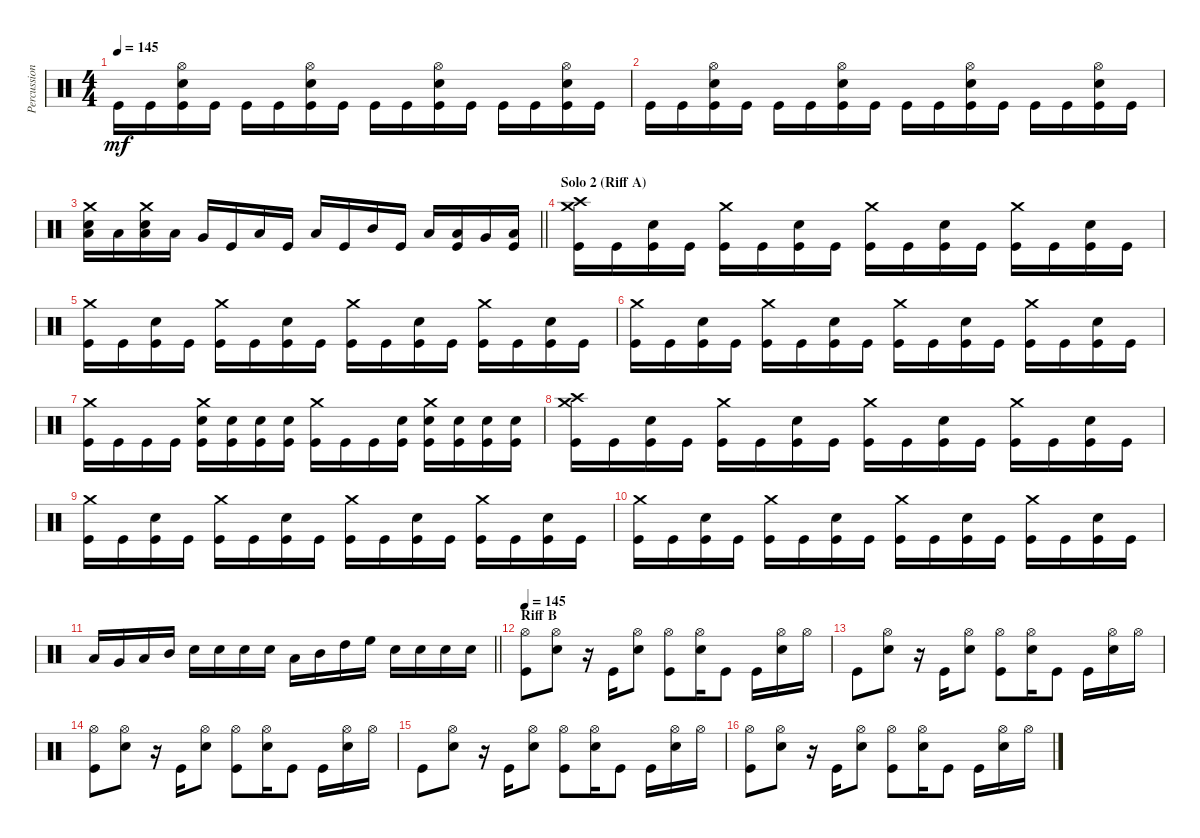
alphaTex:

\track ("Percussion" "Percussion") {instrument percussion}
\staff {score}
\articulation defaults
\ts (4 4)
\tempo 145
\clef neutral
\ks c "Kick (hit)".16{dy mf} "Kick (hit)".16
("Snare (hit) 2" "Hi-Hat (open)" "Kick (hit)").16 "Kick (hit)".16 "Kick (hit)".16 "Kick (hit)".16 ("Snare (hit) 2" "Hi-Hat (open)" "Kick (hit)").16 "Kick (hit)".16 "Kick (hit)".16 "Kick (hit)".16 ("Snare (hit) 2" "Hi-Hat (open)" "Kick (hit)").16 "Kick (hit)".16 "Kick (hit)".16 "Kick (hit)".16 ("Snare (hit) 2" "Hi-Hat (open)" "Kick (hit)").16 "Kick (hit)".16 |
"Kick (hit)".16 "Kick (hit)".16 ("Snare (hit) 2" "Hi-Hat (open)" "Kick (hit)").16 "Kick (hit)".16 "Kick (hit)".16 "Kick (hit)".16 ("Snare (hit) 2" "Hi-Hat (open)" "Kick (hit)").16 "Kick (hit)".16 "Kick (hit)".16 "Kick (hit)".16 ("Snare (hit) 2" "Hi-Hat (open)" "Kick (hit)").16 "Kick (hit)".16 "Kick (hit)".16 "Kick (hit)".16 ("Snare (hit) 2" "Hi-Hat (open)" "Kick (hit)").16 "Kick (hit)".16 |
\barLineRight lightlight
("Low Floor Tom (hit)" "Snare (hit) 2" "Crash medium (hit)").16 "Low Floor Tom (hit)".16 ("Low Floor Tom (hit)" "Snare (hit) 2" "Crash medium (hit)").16 "Low Floor Tom (hit)".16 "Very Low Tom (hit)".16 "Kick (hit)".16 "Low Tom (hit)".16 "Kick (hit)".16 "Low Floor Tom (hit)".16 "Kick (hit)".16 "Mid Tom (hit)".16 "Kick (hit)".16 "Low Tom (hit)".16 ("Low Floor Tom (hit)" "Kick (hit)").16 "Very Low Tom (hit)".16 ("Low Floor Tom (hit)" "Kick (hit)").16 |
\section ("" "Solo 2 (Riff A)")
("Crash medium (hit)" "Crash high (hit)" "Kick (hit)").16 "Kick (hit)".16 ("Snare (hit) 2" "Kick (hit)").16 "Kick (hit)".16 ("Crash medium (hit)" "Kick (hit)").16 "Kick (hit)".16 ("Snare (hit) 2" "Kick (hit)").16 "Kick (hit)".16 ("Crash medium (hit)" "Kick (hit)").16 "Kick (hit)".16 ("Snare (hit) 2" "Kick (hit)").16 "Kick (hit)".16 ("Crash medium (hit)" "Kick (hit)").16 "Kick (hit)".16 ("Snare (hit) 2" "Kick (hit)").16 "Kick (hit)".16 |
("Crash medium (hit)" "Kick (hit)").16 "Kick (hit)".16 ("Snare (hit) 2" "Kick (hit)").16 "Kick (hit)".16 ("Crash medium (hit)" "Kick (hit)").16 "Kick (hit)".16 ("Snare (hit) 2" "Kick (hit)").16 "Kick (hit)".16 ("Crash medium (hit)" "Kick (hit)").16 "Kick (hit)".16 ("Snare (hit) 2" "Kick (hit)").16 "Kick (hit)".16 ("Crash medium (hit)" "Kick (hit)").16 "Kick (hit)".16 ("Snare (hit) 2" "Kick (hit)").16 "Kick (hit)".16 |
("Crash medium (hit)" "Kick (hit)").16 "Kick (hit)".16 ("Snare (hit) 2" "Kick (hit)").16 "Kick (hit)".16 ("Crash medium (hit)" "Kick (hit)").16 "Kick (hit)".16 ("Snare (hit) 2" "Kick (hit)").16 "Kick (hit)".16 ("Crash medium (hit)" "Kick (hit)").16 "Kick (hit)".16 ("Snare (hit) 2" "Kick (hit)").16 "Kick (hit)".16 ("Crash medium (hit)" "Kick (hit)").16 "Kick (hit)".16 ("Snare (hit) 2" "Kick (hit)").16 "Kick (hit)".16 |
("Crash medium (hit)" "Kick (hit)").16 "Kick (hit)".16 "Kick (hit)".16 "Kick (hit)".16 ("Crash medium (hit)" "Snare (hit) 2" "Kick (hit)").16 ("Snare (hit) 2" "Kick (hit)").16 ("Snare (hit) 2" "Kick (hit)").16 ("Snare (hit) 2" "Kick (hit)").16 ("Crash medium (hit)" "Kick (hit)").16 "Kick (hit)".16 "Kick (hit)".16 ("Snare (hit) 2" "Kick (hit)").16 ("Crash medium (hit)" "Snare (hit) 2" "Kick (hit)").16 ("Snare (hit) 2" "Kick (hit)").16 ("Snare (hit) 2" "Kick (hit)").16 ("Snare (hit) 2" "Kick (hit)").16 |
("Crash medium (hit)" "Crash high (hit)" "Kick (hit)").16 "Kick (hit)".16 ("Snare (hit) 2" "Kick (hit)").16 "Kick (hit)".16 ("Crash medium (hit)" "Kick (hit)").16 "Kick (hit)".16 ("Snare (hit) 2" "Kick (hit)").16 "Kick (hit)".16 ("Crash medium (hit)" "Kick (hit)").16 "Kick (hit)".16 ("Snare (hit) 2" "Kick (hit)").16 "Kick (hit)".16 ("Crash medium (hit)" "Kick (hit)").16 "Kick (hit)".16 ("Snare (hit) 2" "Kick (hit)").16 "Kick (hit)".16 |
("Crash medium (hit)" "Kick (hit)").16 "Kick (hit)".16 ("Snare (hit) 2" "Kick (hit)").16 "Kick (hit)".16 ("Crash medium (hit)" "Kick (hit)").16 "Kick (hit)".16 ("Snare (hit) 2" "Kick (hit)").16 "Kick (hit)".16 ("Crash medium (hit)" "Kick (hit)").16 "Kick (hit)".16 ("Snare (hit) 2" "Kick (hit)").16 "Kick (hit)".16 ("Crash medium (hit)" "Kick (hit)").16 "Kick (hit)".16 ("Snare (hit) 2" "Kick (hit)").16 "Kick (hit)".16 |
("Crash medium (hit)" "Kick (hit)").16 "Kick (hit)".16 ("Snare (hit) 2" "Kick (hit)").16 "Kick (hit)".16 ("Crash medium (hit)" "Kick (hit)").16 "Kick (hit)".16 ("Snare (hit) 2" "Kick (hit)").16 "Kick (hit)".16 ("Crash medium (hit)" "Kick (hit)").16 "Kick (hit)".16 ("Snare (hit) 2" "Kick (hit)").16 "Kick (hit)".16 ("Crash medium (hit)" "Kick (hit)").16 "Kick (hit)".16 ("Snare (hit) 2" "Kick (hit)").16 "Kick (hit)".16 |
\barLineRight lightlight "Low Floor Tom (hit)".16 "Very Low Tom (hit)".16 "Low Tom (hit)".16 "Mid Tom (hit)".16 "Snare (hit) 2".16 "Snare (hit) 2".16 "Snare (hit) 2".16 "Snare (hit) 2".16 "Low Tom (hit)".16 "Mid Tom (hit)".16 "High Tom (hit)".16 "High Floor Tom (hit)".16 "Snare (hit) 2".16 "Snare (hit) 2".16 "Snare (hit) 2".16 "Snare (hit) 2".16
|
\section ("" "Riff B")
\tempo 145
("Hi-Hat (open)" "Kick (hit)").8 ("Snare (hit) 2" "Hi-Hat (open)").8 r.16 "Kick (hit)".16 ("Snare (hit) 2" "Hi-Hat (open)").8 ("Hi-Hat (open)" "Kick (hit)").8 ("Snare (hit) 2" "Hi-Hat (open)").16 "Kick (hit)".8 "Kick (hit)".16 ("Snare (hit) 2" "Hi-Hat (open)").16 "Hi-Hat (open)".16 |
"Kick (hit)".8 ("Snare (hit) 2" "Hi-Hat (open)").8 r.16 "Kick (hit)".16 ("Snare (hit) 2" "Hi-Hat (open)").8 ("Hi-Hat (open)" "Kick (hit)").8 ("Snare (hit) 2" "Hi-Hat (open)").16 "Kick (hit)".8 "Kick (hit)".16 ("Snare (hit) 2" "Hi-Hat (open)").16 "Hi-Hat (open)".16 |
("Hi-Hat (open)" "Kick (hit)").8 ("Snare (hit) 2" "Hi-Hat (open)").8 r.16 "Kick (hit)".16 ("Snare (hit) 2" "Hi-Hat (open)").8 ("Hi-Hat (open)" "Kick (hit)").8 ("Snare (hit) 2" "Hi-Hat (open)").16 "Kick (hit)".8 "Kick (hit)".16 ("Snare (hit) 2" "Hi-Hat (open)").16 "Hi-Hat (open)".16 |
"Kick (hit)".8 ("Snare (hit) 2" "Hi-Hat (open)").8 r.16 "Kick (hit)".16 ("Snare (hit) 2" "Hi-Hat (open)").8 ("Hi-Hat (open)" "Kick (hit)").8 ("Snare (hit) 2" "Hi-Hat (open)").16 "Kick (hit)".8 "Kick (hit)".16 ("Snare (hit) 2" "Hi-Hat (open)").16 "Hi-Hat (open)".16 |
("Hi-Hat (open)" "Kick (hit)").8 ("Snare (hit) 2" "Hi-Hat (open)").8 r.16 "Kick (hit)".16 ("Snare (hit) 2" "Hi-Hat (open)").8 ("Hi-Hat (open)" "Kick (hit)").8 ("Snare (hit) 2" "Hi-Hat (open)").16 "Kick (hit)".8 "Kick (hit)".16 ("Snare (hit) 2" "Hi-Hat (open)").16 "Hi-Hat (open)".16
